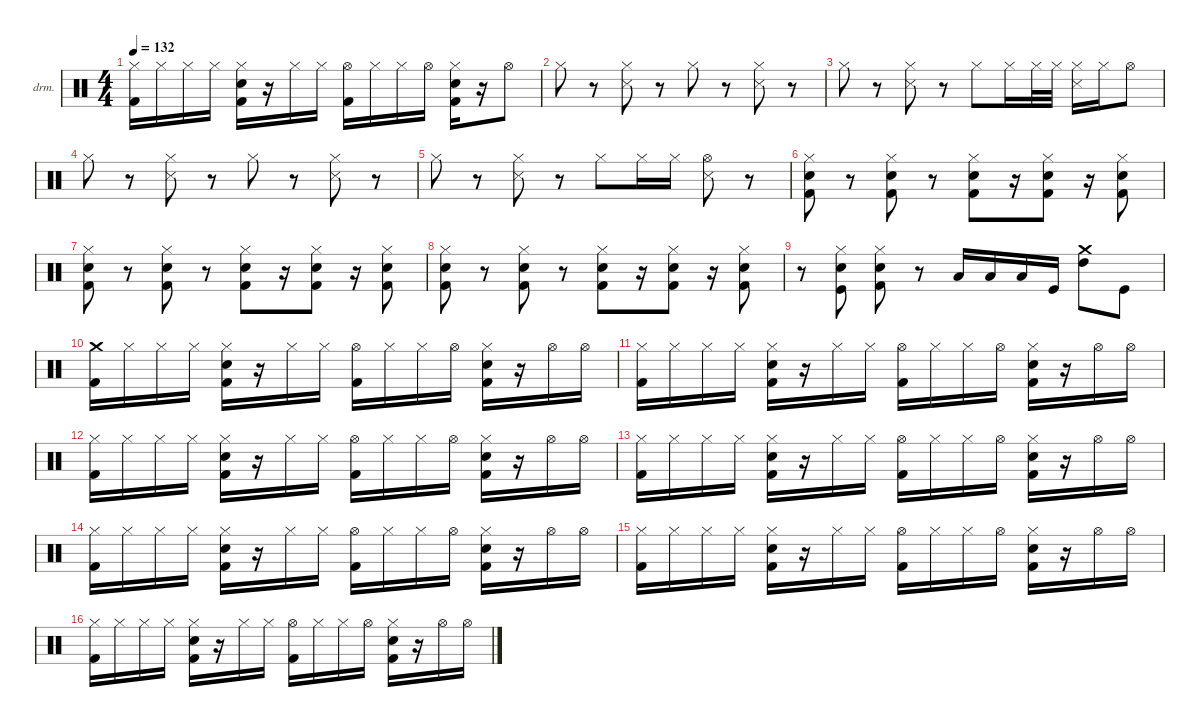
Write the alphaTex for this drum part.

\defaultSystemsLayout 4
\hideDynamics
\bracketExtendMode nobrackets
\firstSystemTrackNameOrientation horizontal
\otherSystemsTrackNameOrientation horizontal
\track ("Drumkit" "drm.") {instrument percussion}
\staff {score}
\articulation defaults
\ts (4 4)
\tempo 132
\clef neutral
\ks c
("Kick (hit) 2" "Hi-Hat (closed)").16{dy mf beam Down} "Hi-Hat (closed)".16{beam Down} "Hi-Hat (closed)".16{beam Down} "Hi-Hat (closed)".16{beam Down} ("Hi-Hat (closed)" "Kick (hit) 2" "Snare (hit) 2").16{beam Down} r.16{beam Down} "Hi-Hat (closed)".16{beam Down} "Hi-Hat (closed)".16{beam Down} ("Hi-Hat (open)" "Kick (hit) 2").16{beam Down} "Hi-Hat (closed)".16{beam Down} "Hi-Hat (closed)".16{beam Down} "Hi-Hat (open)".16{beam Down} ("Hi-Hat (closed)" "Kick (hit) 2" "Snare (hit) 2").16{beam Down} r.16{beam Down} "Hi-Hat (open)".8{beam Down} |
"Hi-Hat (closed)".8{beam Down} r.8{beam Down} ("Hi-Hat (closed)" "Snare (side stick) 3").8{beam Down} r.8{beam Down} "Hi-Hat (closed)".8{beam Down} r.8{beam Down} ("Hi-Hat (closed)" "Snare (side stick) 3").8{beam Down} r.8{beam Down} |
"Hi-Hat (closed)".8{beam Down} r.8{beam Down} ("Hi-Hat (closed)" "Snare (side stick) 3").8{beam Down} r.8{beam Down} "Hi-Hat (closed)".8{beam Down} "Hi-Hat (closed)".16{beam Down} "Hi-Hat (closed)".32{beam Down} "Hi-Hat (closed)".32{beam Down} ("Hi-Hat (closed)" "Snare (side stick) 3").16{beam Down} "Hi-Hat (closed)".16{beam Down} "Hi-Hat (open)".8{beam Down} |
"Hi-Hat (closed)".8{beam Down} r.8{beam Down} ("Hi-Hat (closed)" "Snare (side stick) 3").8{beam Down} r.8{beam Down} "Hi-Hat (closed)".8{beam Down} r.8{beam Down} ("Hi-Hat (closed)" "Snare (side stick) 3").8{beam Down} r.8{beam Down} |
"Hi-Hat (closed)".8{beam Down} r.8{beam Down} ("Hi-Hat (closed)" "Snare (side stick) 3").8{beam Down} r.8{beam Down} "Hi-Hat (closed)".8{beam Down} "Hi-Hat (closed)".16{beam Down} "Hi-Hat (closed)".16{beam Down} ("Hi-Hat (open)" "Snare (side stick) 3").8{beam Down} r.8{beam Down} |
("Kick (hit) 2" "Snare (hit) 2" "Hi-Hat (closed)").8{beam Down} r.8{beam Down} ("Kick (hit) 2" "Snare (hit) 2" "Hi-Hat (closed)").8{beam Down} r.8{beam Down} ("Kick (hit) 2" "Snare (hit) 2" "Hi-Hat (closed)").8{beam Down} r.16{beam Down} ("Kick (hit) 2" "Snare (hit) 2" "Hi-Hat (closed)").8{beam Down} r.16{beam Down} ("Kick (hit) 2" "Snare (hit) 2" "Hi-Hat (closed)").8{beam Down} |
("Kick (hit) 2" "Snare (hit) 2" "Hi-Hat (closed)").8{beam Down} r.8{beam Down} ("Kick (hit) 2" "Snare (hit) 2" "Hi-Hat (closed)").8{beam Down} r.8{beam Down} ("Kick (hit) 2" "Snare (hit) 2" "Hi-Hat (closed)").8{beam Down} r.16{beam Down} ("Kick (hit) 2" "Snare (hit) 2" "Hi-Hat (closed)").8{beam Down} r.16{beam Down} ("Kick (hit) 2" "Snare (hit) 2" "Hi-Hat (closed)").8{beam Down} |
("Kick (hit) 2" "Snare (hit) 2" "Hi-Hat (closed)").8{beam Down} r.8{beam Down} ("Kick (hit) 2" "Snare (hit) 2" "Hi-Hat (closed)").8{beam Down} r.8{beam Down} ("Kick (hit) 2" "Snare (hit) 2" "Hi-Hat (closed)").8{beam Down} r.16{beam Down} ("Kick (hit) 2" "Snare (hit) 2" "Hi-Hat (closed)").8{beam Down} r.16{beam Down} ("Kick (hit) 2" "Snare (hit) 2" "Hi-Hat (closed)").8{beam Down} |
r.8{beam Down} ("Kick (hit)" "Snare (hit) 2" "Hi-Hat (closed)").8{beam Down} ("Kick (hit) 2" "Snare (hit) 2" "Hi-Hat (closed)").8{beam Down} r.8{beam Down} "Low Tom (hit)".16{beam Up} "Low Tom (hit)".16{beam Up} "Low Tom (hit)".16{beam Up} "Kick (hit)".16{beam Up} ("High Tom (hit)" "Crash medium (hit)").8{beam Down} "Kick (hit)".8{beam Down} |
("Crash medium (hit)" "Kick (hit) 2").16{beam Down} "Hi-Hat (closed)".16{beam Down} "Hi-Hat (closed)".16{beam Down} "Hi-Hat (closed)".16{beam Down} ("Hi-Hat (closed)" "Kick (hit) 2" "Snare (hit) 2").16{beam Down} r.16{beam Down} "Hi-Hat (closed)".16{beam Down} "Hi-Hat (closed)".16{beam Down} ("Hi-Hat (open)" "Kick (hit) 2").16{beam Down} "Hi-Hat (closed)".16{beam Down} "Hi-Hat (closed)".16{beam Down} "Hi-Hat (open)".16{beam Down} ("Hi-Hat (closed)" "Snare (hit) 2" "Kick (hit) 2").16{beam Down} r.16{beam Down} "Hi-Hat (open)".16{beam Down} "Hi-Hat (open)".16{beam Down} |
("Kick (hit) 2" "Hi-Hat (closed)").16{beam Down} "Hi-Hat (closed)".16{beam Down} "Hi-Hat (closed)".16{beam Down} "Hi-Hat (closed)".16{beam Down} ("Hi-Hat (closed)" "Kick (hit) 2" "Snare (hit) 2").16{beam Down} r.16{beam Down} "Hi-Hat (closed)".16{beam Down} "Hi-Hat (closed)".16{beam Down} ("Hi-Hat (open)" "Kick (hit) 2").16{beam Down} "Hi-Hat (closed)".16{beam Down} "Hi-Hat (closed)".16{beam Down} "Hi-Hat (open)".16{beam Down} ("Hi-Hat (closed)" "Snare (hit) 2" "Kick (hit) 2").16{beam Down} r.16{beam Down} "Hi-Hat (open)".16{beam Down} "Hi-Hat (open)".16{beam Down} |
("Kick (hit) 2" "Hi-Hat (closed)").16{beam Down} "Hi-Hat (closed)".16{beam Down} "Hi-Hat (closed)".16{beam Down} "Hi-Hat (closed)".16{beam Down} ("Hi-Hat (closed)" "Kick (hit) 2" "Snare (hit) 2").16{beam Down} r.16{beam Down} "Hi-Hat (closed)".16{beam Down} "Hi-Hat (closed)".16{beam Down} ("Hi-Hat (open)" "Kick (hit) 2").16{beam Down} "Hi-Hat (closed)".16{beam Down} "Hi-Hat (closed)".16{beam Down} "Hi-Hat (open)".16{beam Down} ("Hi-Hat (closed)" "Snare (hit) 2" "Kick (hit) 2").16{beam Down} r.16{beam Down} "Hi-Hat (open)".16{beam Down} "Hi-Hat (open)".16{beam Down} |
("Kick (hit) 2" "Hi-Hat (closed)").16{beam Down} "Hi-Hat (closed)".16{beam Down} "Hi-Hat (closed)".16{beam Down} "Hi-Hat (closed)".16{beam Down} ("Hi-Hat (closed)" "Kick (hit) 2" "Snare (hit) 2").16{beam Down} r.16{beam Down} "Hi-Hat (closed)".16{beam Down} "Hi-Hat (closed)".16{beam Down} ("Hi-Hat (open)" "Kick (hit) 2").16{beam Down} "Hi-Hat (closed)".16{beam Down} "Hi-Hat (closed)".16{beam Down} "Hi-Hat (open)".16{beam Down} ("Hi-Hat (closed)" "Snare (hit) 2" "Kick (hit) 2").16{beam Down} r.16{beam Down} "Hi-Hat (open)".16{beam Down} "Hi-Hat (open)".16{beam Down} |
("Kick (hit) 2" "Hi-Hat (closed)").16{beam Down} "Hi-Hat (closed)".16{beam Down} "Hi-Hat (closed)".16{beam Down} "Hi-Hat (closed)".16{beam Down} ("Hi-Hat (closed)" "Kick (hit) 2" "Snare (hit) 2").16{beam Down} r.16{beam Down} "Hi-Hat (closed)".16{beam Down} "Hi-Hat (closed)".16{beam Down} ("Hi-Hat (open)" "Kick (hit) 2").16{beam Down} "Hi-Hat (closed)".16{beam Down} "Hi-Hat (closed)".16{beam Down} "Hi-Hat (open)".16{beam Down} ("Hi-Hat (closed)" "Snare (hit) 2" "Kick (hit) 2").16{beam Down} r.16{beam Down} "Hi-Hat (open)".16{beam Down} "Hi-Hat (open)".16{beam Down} |
("Kick (hit) 2" "Hi-Hat (closed)").16{beam Down} "Hi-Hat (closed)".16{beam Down} "Hi-Hat (closed)".16{beam Down} "Hi-Hat (closed)".16{beam Down} ("Hi-Hat (closed)" "Kick (hit) 2" "Snare (hit) 2").16{beam Down} r.16{beam Down} "Hi-Hat (closed)".16{beam Down} "Hi-Hat (closed)".16{beam Down} ("Hi-Hat (open)" "Kick (hit) 2").16{beam Down} "Hi-Hat (closed)".16{beam Down} "Hi-Hat (closed)".16{beam Down} "Hi-Hat (open)".16{beam Down} ("Hi-Hat (closed)" "Snare (hit) 2" "Kick (hit) 2").16{beam Down} r.16{beam Down} "Hi-Hat (open)".16{beam Down} "Hi-Hat (open)".16{beam Down} |
("Kick (hit) 2" "Hi-Hat (closed)").16{beam Down} "Hi-Hat (closed)".16{beam Down} "Hi-Hat (closed)".16{beam Down} "Hi-Hat (closed)".16{beam Down} ("Hi-Hat (closed)" "Kick (hit) 2" "Snare (hit) 2").16{beam Down} r.16{beam Down} "Hi-Hat (closed)".16{beam Down} "Hi-Hat (closed)".16{beam Down} ("Hi-Hat (open)" "Kick (hit) 2").16{beam Down} "Hi-Hat (closed)".16{beam Down} "Hi-Hat (closed)".16{beam Down} "Hi-Hat (open)".16{beam Down} ("Hi-Hat (closed)" "Snare (hit) 2" "Kick (hit) 2").16{beam Down} r.16{beam Down} "Hi-Hat (open)".16{beam Down} "Hi-Hat (open)".16{beam Down}
